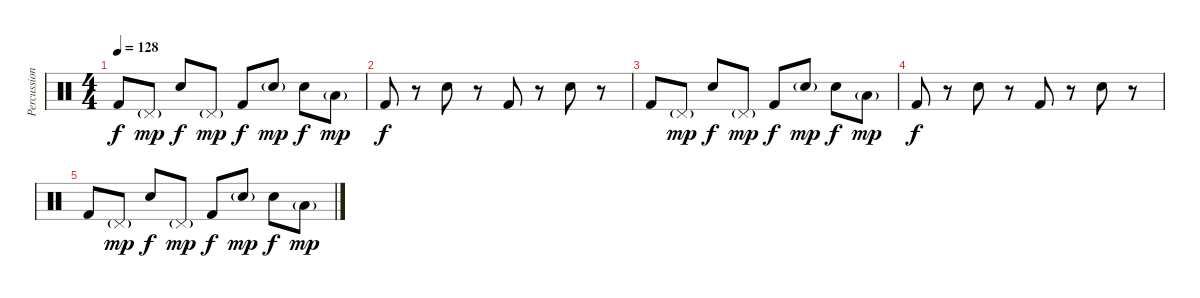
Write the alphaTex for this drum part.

\track ("Percussions" "Percussion") {instrument percussion}
\staff {score}
\articulation defaults
\ts (4 4)
\tempo 128
\clef neutral
\ks c "Kick (hit) 2".8{dy f} "Pedal Hi-Hat (hit)"{g}.8{dy mp} "Electric Snare (hit)".8{dy f} "Pedal Hi-Hat (hit)"{g}.8{dy mp} "Kick (hit) 2".8{dy f} "Electric Snare (hit)"{g}.8{dy mp} "Electric Snare (hit)".8{dy f} "Low Tom (hit)"{g}.8{dy mp}
|
"Kick (hit) 2".8{dy f} r.8 "Electric Snare (hit)".8 r.8 "Kick (hit) 2".8 r.8 "Electric Snare (hit)".8 r.8 |
"Kick (hit) 2".8 "Pedal Hi-Hat (hit)"{g}.8{dy mp} "Electric Snare (hit)".8{dy f} "Pedal Hi-Hat (hit)"{g}.8{dy mp} "Kick (hit) 2".8{dy f} "Electric Snare (hit)"{g}.8{dy mp} "Electric Snare (hit)".8{dy f} "Low Tom (hit)"{g}.8{dy mp} |
"Kick (hit) 2".8{dy f} r.8 "Electric Snare (hit)".8 r.8 "Kick (hit) 2".8 r.8 "Electric Snare (hit)".8 r.8 |
"Kick (hit) 2".8 "Pedal Hi-Hat (hit)"{g}.8{dy mp} "Electric Snare (hit)".8{dy f} "Pedal Hi-Hat (hit)"{g}.8{dy mp} "Kick (hit) 2".8{dy f} "Electric Snare (hit)"{g}.8{dy mp} "Electric Snare (hit)".8{dy f} "Low Tom (hit)"{g}.8{dy mp}
